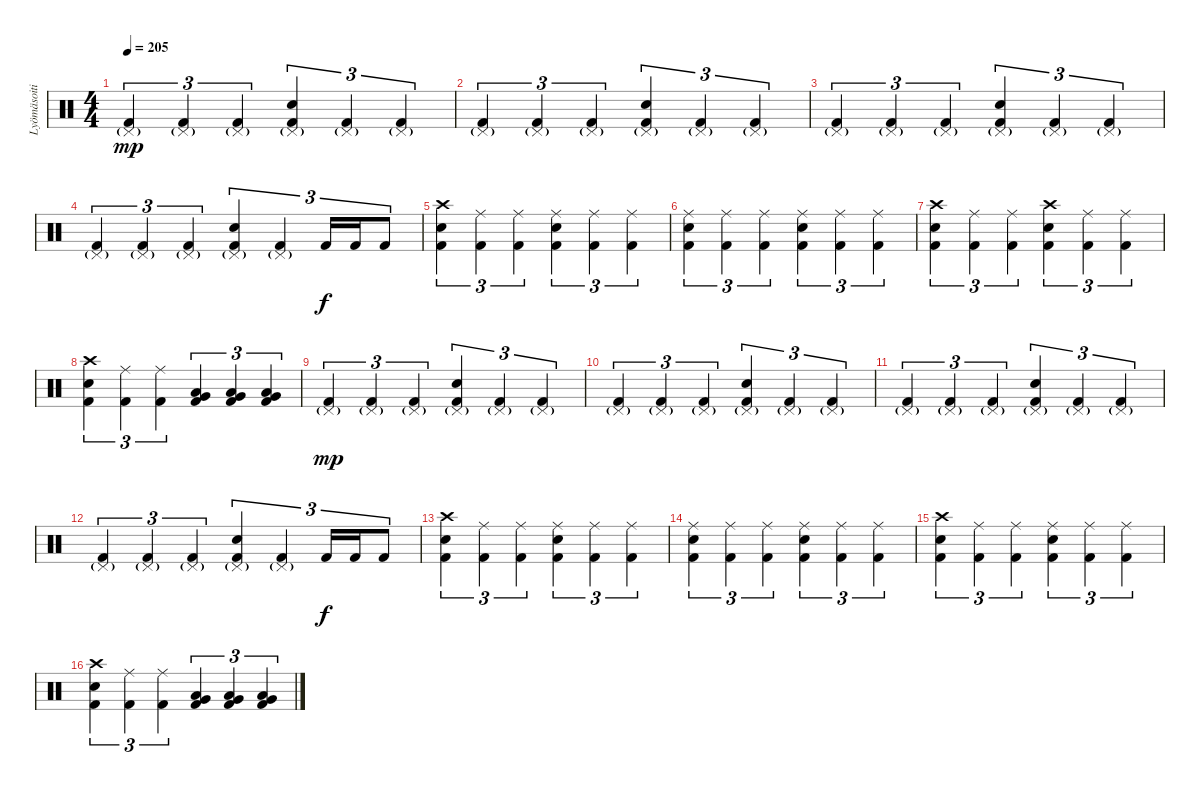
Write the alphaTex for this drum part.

\track ("Lyömäsoitin" "Lyömäsoiti") {instrument percussion}
\staff {score}
\articulation defaults
\ts (4 4)
\tempo 205
\clef neutral
\ks c
("Pedal Hi-Hat (hit)"{g} "Kick (hit) 2").4{tu (3 2) dy mp} ("Pedal Hi-Hat (hit)"{g} "Kick (hit) 2").4{tu (3 2)} ("Pedal Hi-Hat (hit)"{g} "Kick (hit) 2").4{tu (3 2)} ("Pedal Hi-Hat (hit)"{g} "Electric Snare (hit)" "Kick (hit) 2").4{tu (3 2)} ("Pedal Hi-Hat (hit)"{g} "Kick (hit) 2").4{tu (3 2)} ("Pedal Hi-Hat (hit)"{g} "Kick (hit) 2").4{tu (3 2)} |
("Pedal Hi-Hat (hit)"{g} "Kick (hit) 2").4{tu (3 2)} ("Pedal Hi-Hat (hit)"{g} "Kick (hit) 2").4{tu (3 2)} ("Pedal Hi-Hat (hit)"{g} "Kick (hit) 2").4{tu (3 2)} ("Pedal Hi-Hat (hit)"{g} "Electric Snare (hit)" "Kick (hit) 2").4{tu (3 2)} ("Pedal Hi-Hat (hit)"{g} "Kick (hit) 2").4{tu (3 2)} ("Pedal Hi-Hat (hit)"{g} "Kick (hit) 2").4{tu (3 2)} |
("Pedal Hi-Hat (hit)"{g} "Kick (hit) 2").4{tu (3 2)} ("Pedal Hi-Hat (hit)"{g} "Kick (hit) 2").4{tu (3 2)} ("Pedal Hi-Hat (hit)"{g} "Kick (hit) 2").4{tu (3 2)} ("Pedal Hi-Hat (hit)"{g} "Electric Snare (hit)" "Kick (hit) 2").4{tu (3 2)} ("Pedal Hi-Hat (hit)"{g} "Kick (hit) 2").4{tu (3 2)} ("Pedal Hi-Hat (hit)"{g} "Kick (hit) 2").4{tu (3 2)} |
("Pedal Hi-Hat (hit)"{g} "Kick (hit) 2").4{tu (3 2)} ("Pedal Hi-Hat (hit)"{g} "Kick (hit) 2").4{tu (3 2)} ("Pedal Hi-Hat (hit)"{g} "Kick (hit) 2").4{tu (3 2)} ("Pedal Hi-Hat (hit)"{g} "Electric Snare (hit)" "Kick (hit) 2").4{tu (3 2)} ("Pedal Hi-Hat (hit)"{g} "Kick (hit) 2").4{tu (3 2)} "Kick (hit) 2".16{tu (3 2) dy f} "Kick (hit) 2".16{tu (3 2)} "Kick (hit) 2".8{tu (3 2)} |
("Crash high (hit)" "Electric Snare (hit)" "Kick (hit) 2").4{tu (3 2)} ("Ride (middle)" "Kick (hit) 2").4{tu (3 2)} ("Ride (middle)" "Kick (hit) 2").4{tu (3 2)} ("Ride (middle)" "Electric Snare (hit)" "Kick (hit) 2").4{tu (3 2)} ("Ride (middle)" "Kick (hit) 2").4{tu (3 2)} ("Ride (middle)" "Kick (hit) 2").4{tu (3 2)} |
("Ride (middle)" "Electric Snare (hit)" "Kick (hit) 2").4{tu (3 2)} ("Ride (middle)" "Kick (hit) 2").4{tu (3 2)} ("Ride (middle)" "Kick (hit) 2").4{tu (3 2)} ("Ride (middle)" "Electric Snare (hit)" "Kick (hit) 2").4{tu (3 2)} ("Ride (middle)" "Kick (hit) 2").4{tu (3 2)} ("Ride (middle)" "Kick (hit) 2").4{tu (3 2)} |
("Crash high (hit)" "Electric Snare (hit)" "Kick (hit) 2").4{tu (3 2)} ("Ride (middle)" "Kick (hit) 2").4{tu (3 2)} ("Ride (middle)" "Kick (hit) 2").4{tu (3 2)} ("Crash high (hit)" "Electric Snare (hit)" "Kick (hit) 2").4{tu (3 2)} ("Ride (middle)" "Kick (hit) 2").4{tu (3 2)} ("Ride (middle)" "Kick (hit) 2").4{tu (3 2)} |
("Crash high (hit)" "Electric Snare (hit)" "Kick (hit) 2").4{tu (3 2)} ("Ride (middle)" "Kick (hit) 2").4{tu (3 2)} ("Ride (middle)" "Kick (hit) 2").4{tu (3 2)} ("Low Tom (hit)" "Very Low Tom (hit)" "Kick (hit) 2").4{tu (3 2)} ("Very Low Tom (hit)" "Low Floor Tom (hit)" "Kick (hit) 2").4{tu (3 2)} ("Very Low Tom (hit)" "Low Floor Tom (hit)" "Kick (hit) 2").4{tu (3 2)} |
("Pedal Hi-Hat (hit)"{g} "Kick (hit) 2").4{tu (3 2) dy mp} ("Pedal Hi-Hat (hit)"{g} "Kick (hit) 2").4{tu (3 2)} ("Pedal Hi-Hat (hit)"{g} "Kick (hit) 2").4{tu (3 2)} ("Pedal Hi-Hat (hit)"{g} "Electric Snare (hit)" "Kick (hit) 2").4{tu (3 2)} ("Pedal Hi-Hat (hit)"{g} "Kick (hit) 2").4{tu (3 2)} ("Pedal Hi-Hat (hit)"{g} "Kick (hit) 2").4{tu (3 2)} |
("Pedal Hi-Hat (hit)"{g} "Kick (hit) 2").4{tu (3 2)} ("Pedal Hi-Hat (hit)"{g} "Kick (hit) 2").4{tu (3 2)} ("Pedal Hi-Hat (hit)"{g} "Kick (hit) 2").4{tu (3 2)} ("Pedal Hi-Hat (hit)"{g} "Electric Snare (hit)" "Kick (hit) 2").4{tu (3 2)} ("Pedal Hi-Hat (hit)"{g} "Kick (hit) 2").4{tu (3 2)} ("Pedal Hi-Hat (hit)"{g} "Kick (hit) 2").4{tu (3 2)} |
("Pedal Hi-Hat (hit)"{g} "Kick (hit) 2").4{tu (3 2)} ("Pedal Hi-Hat (hit)"{g} "Kick (hit) 2").4{tu (3 2)} ("Pedal Hi-Hat (hit)"{g} "Kick (hit) 2").4{tu (3 2)} ("Pedal Hi-Hat (hit)"{g} "Electric Snare (hit)" "Kick (hit) 2").4{tu (3 2)} ("Pedal Hi-Hat (hit)"{g} "Kick (hit) 2").4{tu (3 2)} ("Pedal Hi-Hat (hit)"{g} "Kick (hit) 2").4{tu (3 2)} |
("Pedal Hi-Hat (hit)"{g} "Kick (hit) 2").4{tu (3 2)} ("Pedal Hi-Hat (hit)"{g} "Kick (hit) 2").4{tu (3 2)} ("Pedal Hi-Hat (hit)"{g} "Kick (hit) 2").4{tu (3 2)} ("Pedal Hi-Hat (hit)"{g} "Electric Snare (hit)" "Kick (hit) 2").4{tu (3 2)} ("Pedal Hi-Hat (hit)"{g} "Kick (hit) 2").4{tu (3 2)} "Kick (hit) 2".16{tu (3 2) dy f} "Kick (hit) 2".16{tu (3 2)} "Kick (hit) 2".8{tu (3 2)} |
("Crash high (hit)" "Electric Snare (hit)" "Kick (hit) 2").4{tu (3 2)} ("Ride (middle)" "Kick (hit) 2").4{tu (3 2)} ("Ride (middle)" "Kick (hit) 2").4{tu (3 2)} ("Ride (middle)" "Electric Snare (hit)" "Kick (hit) 2").4{tu (3 2)} ("Ride (middle)" "Kick (hit) 2").4{tu (3 2)} ("Ride (middle)" "Kick (hit) 2").4{tu (3 2)} |
("Ride (middle)" "Electric Snare (hit)" "Kick (hit) 2").4{tu (3 2)} ("Ride (middle)" "Kick (hit) 2").4{tu (3 2)} ("Ride (middle)" "Kick (hit) 2").4{tu (3 2)} ("Ride (middle)" "Electric Snare (hit)" "Kick (hit) 2").4{tu (3 2)} ("Ride (middle)" "Kick (hit) 2").4{tu (3 2)} ("Ride (middle)" "Kick (hit) 2").4{tu (3 2)} |
("Crash high (hit)" "Electric Snare (hit)" "Kick (hit) 2").4{tu (3 2)} ("Ride (middle)" "Kick (hit) 2").4{tu (3 2)} ("Ride (middle)" "Kick (hit) 2").4{tu (3 2)} ("Ride (middle)" "Electric Snare (hit)" "Kick (hit) 2").4{tu (3 2)} ("Ride (middle)" "Kick (hit) 2").4{tu (3 2)} ("Ride (middle)" "Kick (hit) 2").4{tu (3 2)} |
("Crash high (hit)" "Electric Snare (hit)" "Kick (hit) 2").4{tu (3 2)} ("Ride (middle)" "Kick (hit) 2").4{tu (3 2)} ("Ride (middle)" "Kick (hit) 2").4{tu (3 2)} ("Low Tom (hit)" "Very Low Tom (hit)" "Kick (hit) 2").4{tu (3 2)} ("Very Low Tom (hit)" "Low Floor Tom (hit)" "Kick (hit) 2").4{tu (3 2)} ("Very Low Tom (hit)" "Low Floor Tom (hit)" "Kick (hit) 2").4{tu (3 2)}
